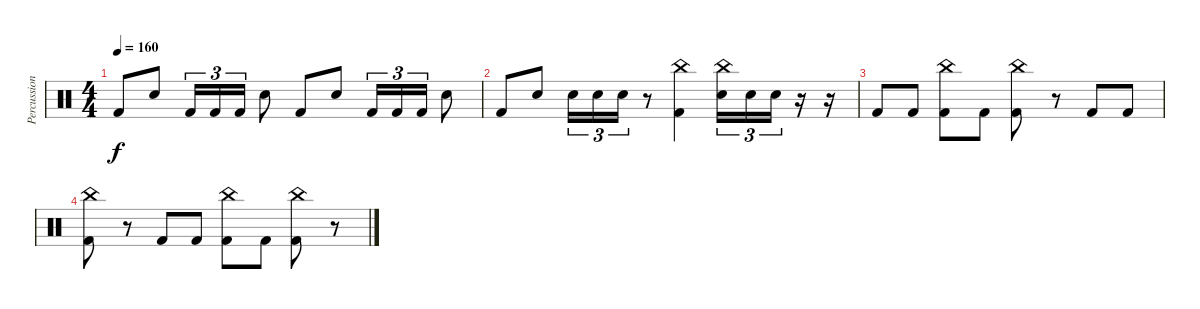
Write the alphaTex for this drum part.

\track ("Percussion" "Percussion") {instrument percussion}
\staff {score}
\articulation defaults
\ts (4 4)
\tempo 160
\clef neutral
\ks c "Kick (hit) 2".8{dy f} "Snare (hit) 2".8 "Kick (hit) 2".16{tu (3 2)} "Kick (hit) 2".16{tu (3 2)} "Kick (hit) 2".16{tu (3 2)} "Snare (hit) 2".8 "Kick (hit) 2".8 "Snare (hit) 2".8 "Kick (hit) 2".16{tu (3 2)} "Kick (hit) 2".16{tu (3 2)} "Kick (hit) 2".16{tu (3 2)} "Snare (hit) 2".8
|
"Kick (hit) 2".8 "Snare (hit) 2".8 "Snare (hit) 2".16{tu (3 2)} "Snare (hit) 2".16{tu (3 2)} "Snare (hit) 2".16{tu (3 2)} r.8 ("China (hit)" "Kick (hit) 2").4 ("China (hit)" "Snare (hit) 2").16{tu (3 2)} "Snare (hit) 2".16{tu (3 2)} "Snare (hit) 2".16{tu (3 2)} r.16 r.16 |
"Kick (hit) 2".8 "Kick (hit) 2".8 ("China (hit)" "Kick (hit) 2").8 "Kick (hit) 2".8 ("China (hit)" "Kick (hit) 2").8 r.8 "Kick (hit) 2".8 "Kick (hit) 2".8 |
("China (hit)" "Kick (hit) 2").8 r.8 "Kick (hit) 2".8 "Kick (hit) 2".8 ("China (hit)" "Kick (hit) 2").8 "Kick (hit) 2".8 ("China (hit)" "Kick (hit) 2").8 r.8
